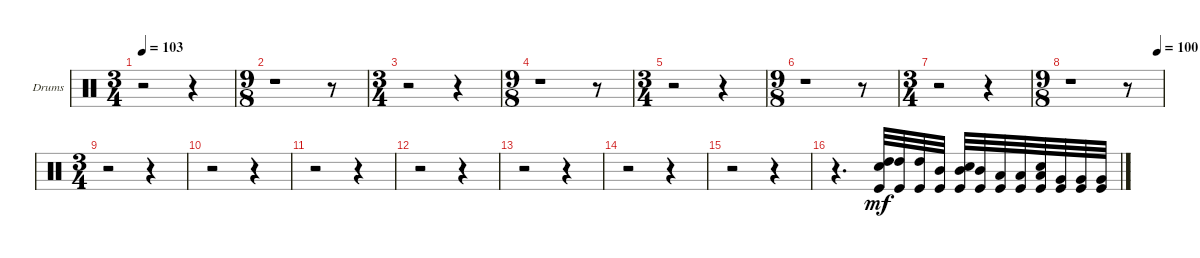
\bracketExtendMode groupsimilarinstruments
\firstSystemTrackNameOrientation horizontal
\otherSystemsTrackNameOrientation horizontal
\track ("Drumkit" "Drums") {instrument percussion}
\staff {score}
\articulation defaults
\ts (3 4)
\tempo 103
\clef neutral
\ks c
r.2{dy f} r.4 |
\ts (9 8)
\beaming (8 3 3 3)
r.1 r.8 |
\ts (3 4)
\beaming (8 3 3 3)
r.2 r.4 |
\ts (9 8)
\beaming (8 3 3 3)
r.1 r.8 |
\ts (3 4)
\beaming (8 3 3 3)
r.2 r.4 |
\ts (9 8)
\beaming (8 3 3 3)
r.1 r.8 |
\ts (3 4)
\beaming (8 3 3 3)
r.2 r.4 |
\ts (9 8)
\beaming (8 3 3 3)
\tempo (100 0.944444)
r.1 r.8 |
\ts (3 4)
\beaming (8 2 2 2)
r.2 r.4 |
r.2 r.4 |
r.2 r.4 |
r.2 r.4 |
r.2 r.4 |
r.2 r.4 |
r.2 r.4 |
r.4{d} ("High Tom (hit)" "Snare (hit) 2" "Kick (hit)").32{dy mf} ("High Tom (hit)" "Kick (hit)").32 ("High Tom (hit)" "Kick (hit)").32 ("Mid Tom (hit)" "Kick (hit)").32 ("Mid Tom (hit)" "Snare (hit) 2" "Kick (hit)").32 ("Mid Tom (hit)" "Kick (hit)").32 ("Low Tom (hit)" "Kick (hit)").32 ("Low Tom (hit)" "Kick (hit)").32 ("Low Tom (hit)" "Snare (hit) 2" "Kick (hit)").32 ("Very Low Tom (hit)" "Kick (hit)").32 ("Very Low Tom (hit)" "Kick (hit)").32 ("Very Low Tom (hit)" "Kick (hit)").32
